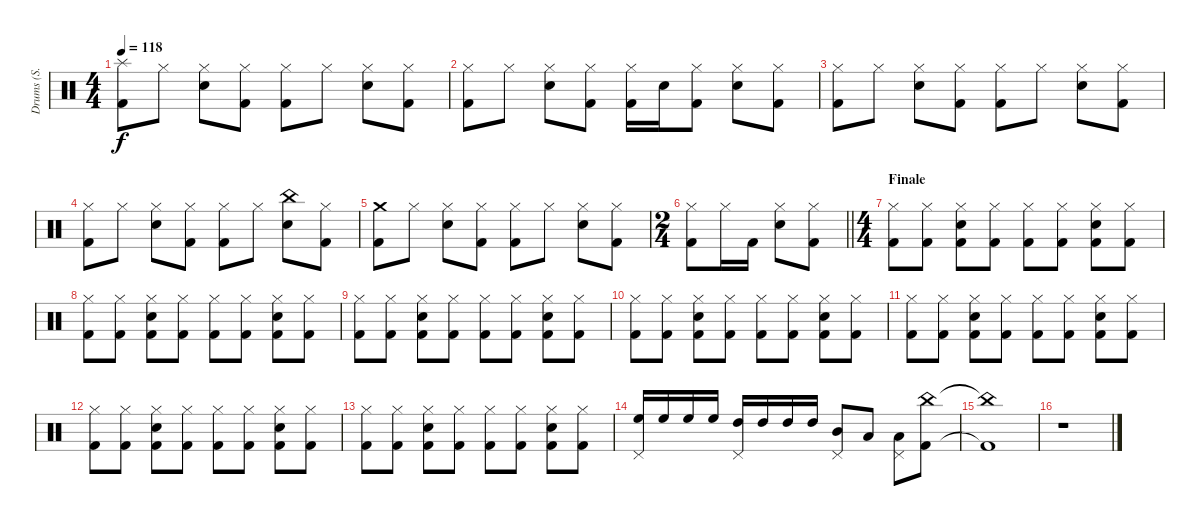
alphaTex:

\track ("Drums (S. Rockenfield)" "Drums (S. ") {instrument percussion}
\staff {score}
\articulation defaults
\ts (4 4)
\tempo 118
\clef neutral
\ks c
("Splash (hit)" "Kick (hit) 2").8{dy f} "Hi-Hat (closed)".8 ("Hi-Hat (closed)" "Snare (hit) 2").8 ("Hi-Hat (closed)" "Kick (hit) 2").8 ("Hi-Hat (closed)" "Kick (hit) 2").8 "Hi-Hat (closed)".8 ("Hi-Hat (closed)" "Snare (hit) 2").8 ("Hi-Hat (closed)" "Kick (hit) 2").8 |
("Hi-Hat (closed)" "Kick (hit) 2").8 "Hi-Hat (closed)".8 ("Hi-Hat (closed)" "Snare (hit) 2").8 ("Hi-Hat (closed)" "Kick (hit) 2").8 ("Hi-Hat (closed)" "Kick (hit) 2").16 "Snare (hit) 2".16 ("Hi-Hat (closed)" "Kick (hit) 2").8 ("Hi-Hat (closed)" "Snare (hit) 2").8 ("Hi-Hat (closed)" "Kick (hit) 2").8 |
("Hi-Hat (closed)" "Kick (hit) 2").8 "Hi-Hat (closed)".8 ("Hi-Hat (closed)" "Snare (hit) 2").8 ("Hi-Hat (closed)" "Kick (hit) 2").8 ("Hi-Hat (closed)" "Kick (hit) 2").8 "Hi-Hat (closed)".8 ("Hi-Hat (closed)" "Snare (hit) 2").8 ("Hi-Hat (closed)" "Kick (hit) 2").8 |
("Hi-Hat (closed)" "Kick (hit) 2").8 "Hi-Hat (closed)".8 ("Hi-Hat (closed)" "Snare (hit) 2").8 ("Hi-Hat (closed)" "Kick (hit) 2").8 ("Hi-Hat (closed)" "Kick (hit) 2").8 "Hi-Hat (closed)".8 ("China (hit)" "Snare (hit) 2").8 ("Hi-Hat (closed)" "Kick (hit) 2").8 |
("Crash medium (hit)" "Kick (hit) 2").8 "Hi-Hat (closed)".8 ("Hi-Hat (closed)" "Snare (hit) 2").8 ("Hi-Hat (closed)" "Kick (hit) 2").8 ("Hi-Hat (closed)" "Kick (hit) 2").8 "Hi-Hat (closed)".8 ("Hi-Hat (closed)" "Snare (hit) 2").8 ("Hi-Hat (closed)" "Kick (hit) 2").8 |
\ts (2 4)
\barLineRight lightlight
("Hi-Hat (closed)" "Kick (hit) 2").8 "Hi-Hat (closed)".16 "Kick (hit) 2".16 ("Hi-Hat (closed)" "Snare (hit) 2").8 ("Hi-Hat (closed)" "Kick (hit) 2").8 |
\ts (4 4)
\section ("" "Finale")
("Hi-Hat (closed)" "Kick (hit) 2").8 ("Hi-Hat (closed)" "Kick (hit) 2").8 ("Hi-Hat (closed)" "Snare (hit) 2" "Kick (hit) 2").8 ("Hi-Hat (closed)" "Kick (hit) 2").8 ("Hi-Hat (closed)" "Kick (hit) 2").8 ("Hi-Hat (closed)" "Kick (hit) 2").8 ("Hi-Hat (closed)" "Snare (hit) 2" "Kick (hit) 2").8 ("Hi-Hat (closed)" "Kick (hit) 2").8 |
("Hi-Hat (closed)" "Kick (hit) 2").8 ("Hi-Hat (closed)" "Kick (hit) 2").8 ("Hi-Hat (closed)" "Snare (hit) 2" "Kick (hit) 2").8 ("Hi-Hat (closed)" "Kick (hit) 2").8 ("Hi-Hat (closed)" "Kick (hit) 2").8 ("Hi-Hat (closed)" "Kick (hit) 2").8 ("Hi-Hat (closed)" "Snare (hit) 2" "Kick (hit) 2").8 ("Hi-Hat (closed)" "Kick (hit) 2").8 |
("Hi-Hat (closed)" "Kick (hit) 2").8 ("Hi-Hat (closed)" "Kick (hit) 2").8 ("Hi-Hat (closed)" "Snare (hit) 2" "Kick (hit) 2").8 ("Hi-Hat (closed)" "Kick (hit) 2").8 ("Hi-Hat (closed)" "Kick (hit) 2").8 ("Hi-Hat (closed)" "Kick (hit) 2").8 ("Hi-Hat (closed)" "Snare (hit) 2" "Kick (hit) 2").8 ("Hi-Hat (closed)" "Kick (hit) 2").8 |
("Hi-Hat (closed)" "Kick (hit) 2").8 ("Hi-Hat (closed)" "Kick (hit) 2").8 ("Hi-Hat (closed)" "Snare (hit) 2" "Kick (hit) 2").8 ("Hi-Hat (closed)" "Kick (hit) 2").8 ("Hi-Hat (closed)" "Kick (hit) 2").8 ("Hi-Hat (closed)" "Kick (hit) 2").8 ("Hi-Hat (closed)" "Snare (hit) 2" "Kick (hit) 2").8 ("Hi-Hat (closed)" "Kick (hit) 2").8 |
("Hi-Hat (closed)" "Kick (hit) 2").8 ("Hi-Hat (closed)" "Kick (hit) 2").8 ("Hi-Hat (closed)" "Snare (hit) 2" "Kick (hit) 2").8 ("Hi-Hat (closed)" "Kick (hit) 2").8 ("Hi-Hat (closed)" "Kick (hit) 2").8 ("Hi-Hat (closed)" "Kick (hit) 2").8 ("Hi-Hat (closed)" "Snare (hit) 2" "Kick (hit) 2").8 ("Hi-Hat (closed)" "Kick (hit) 2").8 |
("Hi-Hat (closed)" "Kick (hit) 2").8 ("Hi-Hat (closed)" "Kick (hit) 2").8 ("Hi-Hat (closed)" "Snare (hit) 2" "Kick (hit) 2").8 ("Hi-Hat (closed)" "Kick (hit) 2").8 ("Hi-Hat (closed)" "Kick (hit) 2").8 ("Hi-Hat (closed)" "Kick (hit) 2").8 ("Hi-Hat (closed)" "Snare (hit) 2" "Kick (hit) 2").8 ("Hi-Hat (closed)" "Kick (hit) 2").8 |
("Hi-Hat (closed)" "Kick (hit) 2").8 ("Hi-Hat (closed)" "Kick (hit) 2").8 ("Hi-Hat (closed)" "Snare (hit) 2" "Kick (hit) 2").8 ("Hi-Hat (closed)" "Kick (hit) 2").8 ("Hi-Hat (closed)" "Kick (hit) 2").8 ("Hi-Hat (closed)" "Kick (hit) 2").8 ("Hi-Hat (closed)" "Snare (hit) 2" "Kick (hit) 2").8 ("Hi-Hat (closed)" "Kick (hit) 2").8 |
("Pedal Hi-Hat (hit)" "High Floor Tom (hit)").16 "High Floor Tom (hit)".16 "High Floor Tom (hit)".16 "High Floor Tom (hit)".16 ("Pedal Hi-Hat (hit)" "High Tom (hit)").16 "High Tom (hit)".16 "High Tom (hit)".16 "High Tom (hit)".16 ("Pedal Hi-Hat (hit)" "Mid Tom (hit)").8 "Low Tom (hit)".8 ("Pedal Hi-Hat (hit)" "Low Tom (hit)").8 ("China (hit)" "Kick (hit) 2").8 |
("China (hit)"{t} "Kick (hit) 2"{t}).1{volume 0} |
r.1
